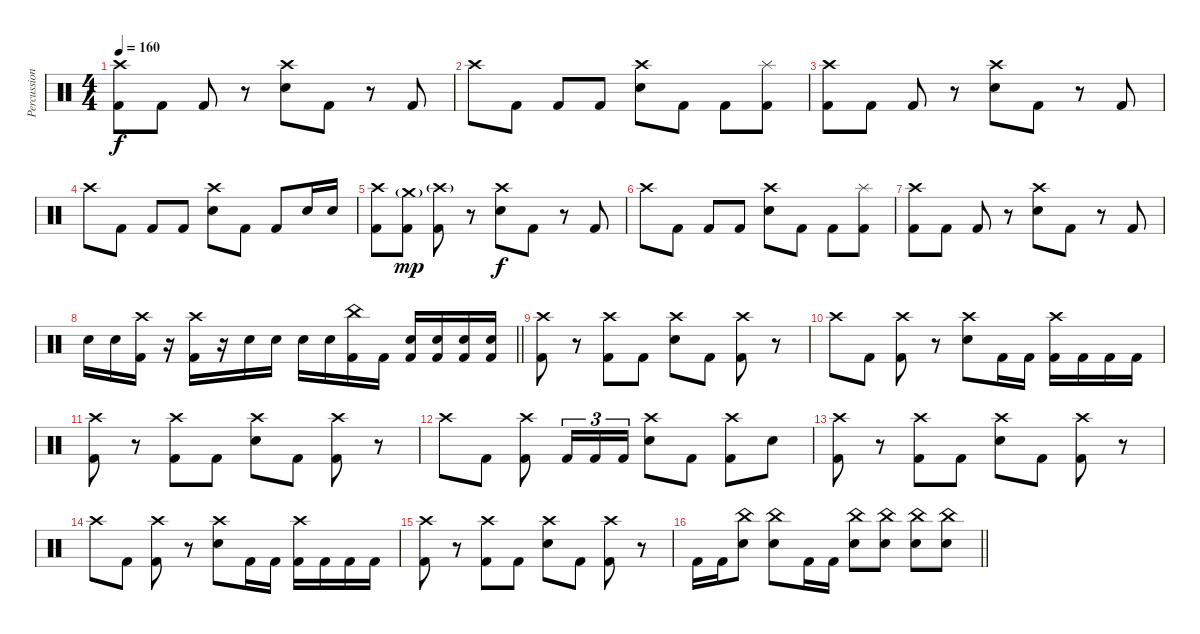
\track ("Percussion" "Percussion") {instrument percussion}
\staff {score}
\articulation defaults
\ts (4 4)
\section ("" "")
\tempo 160
\clef neutral
\ks c
("Crash high (hit)" "Kick (hit) 2").8{dy f} "Kick (hit) 2".8 "Kick (hit) 2".8 r.8 ("Crash high (hit)" "Snare (hit) 2").8 "Kick (hit) 2".8 r.8 "Kick (hit) 2".8 |
"Crash high (hit)".8 "Kick (hit) 2".8 "Kick (hit) 2".8 "Kick (hit) 2".8 ("Crash high (hit)" "Snare (hit) 2").8 "Kick (hit) 2".8 "Kick (hit) 2".8 ("Splash (hit)" "Kick (hit) 2").8 |
("Crash high (hit)" "Kick (hit) 2").8 "Kick (hit) 2".8 "Kick (hit) 2".8 r.8 ("Crash high (hit)" "Snare (hit) 2").8 "Kick (hit) 2".8 r.8 "Kick (hit) 2".8 |
"Crash high (hit)".8 "Kick (hit) 2".8 "Kick (hit) 2".8 "Kick (hit) 2".8 ("Crash high (hit)" "Snare (hit) 2").8 "Kick (hit) 2".8 "Kick (hit) 2".8 "Snare (hit) 2".16 "Snare (hit) 2".16 |
("Crash high (hit)" "Kick (hit) 2").8 ("Crash medium (hit)"{g} "Kick (hit) 2").8{dy mp} ("Crash high (hit)"{g} "Kick (hit) 2").8 r.8 ("Crash high (hit)" "Snare (hit) 2").8{dy f} "Kick (hit) 2".8 r.8 "Kick (hit) 2".8 |
"Crash high (hit)".8 "Kick (hit) 2".8 "Kick (hit) 2".8 "Kick (hit) 2".8 ("Crash high (hit)" "Snare (hit) 2").8 "Kick (hit) 2".8 "Kick (hit) 2".8 ("Splash (hit)" "Kick (hit) 2").8 |
("Crash high (hit)" "Kick (hit) 2").8 "Kick (hit) 2".8 "Kick (hit) 2".8 r.8 ("Crash high (hit)" "Snare (hit) 2").8 "Kick (hit) 2".8 r.8 "Kick (hit) 2".8 |
\barLineRight lightlight "Snare (hit) 2".16 "Snare (hit) 2".16
("Crash high (hit)" "Kick (hit) 2").16 r.16 ("Crash high (hit)" "Kick (hit) 2").16 r.16 "Snare (hit) 2".16 "Snare (hit) 2".16 "Snare (hit) 2".16 "Snare (hit) 2".16 ("China (hit)" "Kick (hit) 2").16 "Kick (hit) 2".16 ("Snare (hit) 2" "Kick (hit) 2").16 ("Snare (hit) 2" "Kick (hit) 2").16 ("Snare (hit) 2" "Kick (hit) 2").16 ("Snare (hit) 2" "Kick (hit) 2").16 |
\section ("" "")
("Crash high (hit)" "Kick (hit) 2").8 r.8 ("Crash high (hit)" "Kick (hit) 2").8 "Kick (hit) 2".8 ("Crash high (hit)" "Snare (hit) 2").8 "Kick (hit) 2".8 ("Crash high (hit)" "Kick (hit) 2").8 r.8 |
"Crash high (hit)".8 "Kick (hit) 2".8 ("Crash high (hit)" "Kick (hit) 2").8 r.8 ("Crash high (hit)" "Snare (hit) 2").8 "Kick (hit) 2".16 "Kick (hit) 2".16 ("Crash high (hit)" "Kick (hit) 2").16 "Kick (hit) 2".16 "Kick (hit) 2".16 "Kick (hit) 2".16 |
("Crash high (hit)" "Kick (hit) 2").8 r.8 ("Crash high (hit)" "Kick (hit) 2").8 "Kick (hit) 2".8 ("Crash high (hit)" "Snare (hit) 2").8 "Kick (hit) 2".8 ("Crash high (hit)" "Kick (hit) 2").8 r.8 |
"Crash high (hit)".8 "Kick (hit) 2".8 ("Crash high (hit)" "Kick (hit) 2").8 "Kick (hit) 2".16{tu (3 2)} "Kick (hit) 2".16{tu (3 2)} "Kick (hit) 2".16{tu (3 2)} ("Crash high (hit)" "Snare (hit) 2").8 "Kick (hit) 2".8 ("Crash high (hit)" "Kick (hit) 2").8 "Snare (hit) 2".8 |
("Crash high (hit)" "Kick (hit) 2").8 r.8 ("Crash high (hit)" "Kick (hit) 2").8 "Kick (hit) 2".8 ("Crash high (hit)" "Snare (hit) 2").8 "Kick (hit) 2".8 ("Crash high (hit)" "Kick (hit) 2").8 r.8 |
"Crash high (hit)".8 "Kick (hit) 2".8 ("Crash high (hit)" "Kick (hit) 2").8 r.8 ("Crash high (hit)" "Snare (hit) 2").8 "Kick (hit) 2".16 "Kick (hit) 2".16 ("Crash high (hit)" "Kick (hit) 2").16 "Kick (hit) 2".16 "Kick (hit) 2".16 "Kick (hit) 2".16 |
("Crash high (hit)" "Kick (hit) 2").8 r.8 ("Crash high (hit)" "Kick (hit) 2").8 "Kick (hit) 2".8 ("Crash high (hit)" "Snare (hit) 2").8 "Kick (hit) 2".8 ("Crash high (hit)" "Kick (hit) 2").8 r.8 |
\barLineRight lightlight "Kick (hit) 2".16 "Kick (hit) 2".16
("China (hit)" "Snare (hit) 2").8 ("China (hit)" "Snare (hit) 2").8 "Kick (hit) 2".16 "Kick (hit) 2".16 ("China (hit)" "Snare (hit) 2").8 ("China (hit)" "Snare (hit) 2").8 ("China (hit)" "Snare (hit) 2").8 ("China (hit)" "Snare (hit) 2").8
